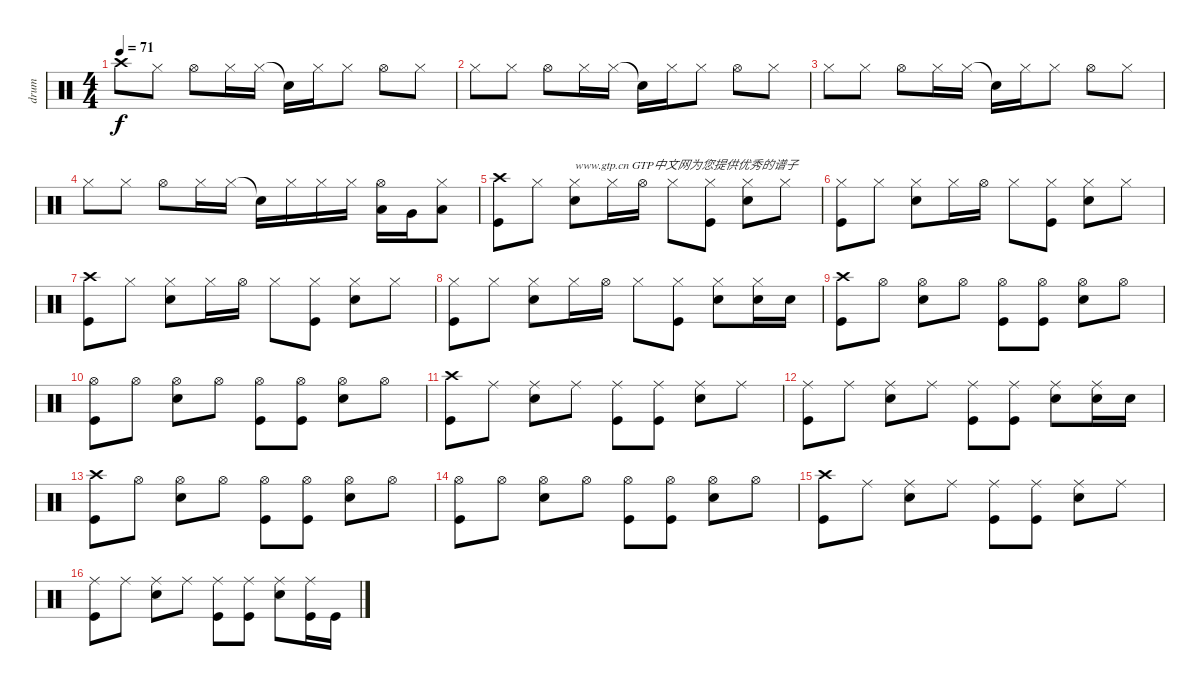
\track ("drum" "drum") {instrument percussion}
\staff {score}
\articulation defaults
\ts (4 4)
\tempo 71
\clef neutral
\ks c "Crash high (hit)".8{dy f} "Hi-Hat (closed)".8 "Hi-Hat (open)".8 "Hi-Hat (closed)".16 "Hi-Hat (closed)".16 "Snare (hit)"{t}.16 "Hi-Hat (closed)".16 "Hi-Hat (closed)".8 "Hi-Hat (open)".8 "Hi-Hat (closed)".8
|
"Hi-Hat (closed)".8 "Hi-Hat (closed)".8 "Hi-Hat (open)".8 "Hi-Hat (closed)".16 "Hi-Hat (closed)".16 "Snare (hit)"{t}.16 "Hi-Hat (closed)".16 "Hi-Hat (closed)".8 "Hi-Hat (open)".8 "Hi-Hat (closed)".8 |
"Hi-Hat (closed)".8 "Hi-Hat (closed)".8 "Hi-Hat (open)".8 "Hi-Hat (closed)".16 "Hi-Hat (closed)".16 "Snare (hit)"{t}.16 "Hi-Hat (closed)".16 "Hi-Hat (closed)".8 "Hi-Hat (open)".8 "Hi-Hat (closed)".8 |
"Hi-Hat (closed)".8 "Hi-Hat (closed)".8 "Hi-Hat (open)".8 "Hi-Hat (closed)".16 "Hi-Hat (closed)".16 "Snare (hit)"{t}.16 "Hi-Hat (closed)".16 "Hi-Hat (closed)".16 "Hi-Hat (closed)".16 ("Hi-Hat (open)" "Low Tom (hit)").16 "Very Low Tom (hit)".16 ("Hi-Hat (closed)" "Low Floor Tom (hit)").8 |
("Crash high (hit)" "Kick (hit)").8 "Hi-Hat (closed)".8 ("Hi-Hat (closed)" "Snare (hit) 2").8{txt "www.gtp.cn GTP中文网为您提供优秀的谱子"} "Hi-Hat (closed)".16 "Hi-Hat (open)".16 "Hi-Hat (closed)".8 ("Hi-Hat (closed)" "Kick (hit)").8 ("Hi-Hat (closed)" "Snare (hit) 2").8 "Hi-Hat (closed)".8 |
("Hi-Hat (closed)" "Kick (hit)").8 "Hi-Hat (closed)".8 ("Hi-Hat (closed)" "Snare (hit) 2").8 "Hi-Hat (closed)".16 "Hi-Hat (open)".16 "Hi-Hat (closed)".8 ("Hi-Hat (closed)" "Kick (hit)").8 ("Hi-Hat (closed)" "Snare (hit) 2").8 "Hi-Hat (closed)".8 |
("Crash high (hit)" "Kick (hit)").8 "Hi-Hat (closed)".8 ("Hi-Hat (closed)" "Snare (hit) 2").8 "Hi-Hat (closed)".16 "Hi-Hat (open)".16 "Hi-Hat (closed)".8 ("Hi-Hat (closed)" "Kick (hit)").8 ("Hi-Hat (closed)" "Snare (hit) 2").8 "Hi-Hat (closed)".8 |
("Hi-Hat (closed)" "Kick (hit)").8 "Hi-Hat (closed)".8 ("Hi-Hat (closed)" "Snare (hit) 2").8 "Hi-Hat (closed)".16 "Hi-Hat (open)".16 "Hi-Hat (closed)".8 ("Hi-Hat (closed)" "Kick (hit)").8 ("Hi-Hat (closed)" "Snare (hit) 2").8 ("Hi-Hat (closed)" "Snare (hit) 2").16 "Snare (hit) 2".16 |
("Crash high (hit)" "Kick (hit)").8 "Hi-Hat (open)".8 ("Hi-Hat (open)" "Snare (hit) 2").8 "Hi-Hat (open)".8 ("Hi-Hat (open)" "Kick (hit)").8 ("Hi-Hat (open)" "Kick (hit)").8 ("Hi-Hat (open)" "Snare (hit) 2").8 "Hi-Hat (open)".8 |
("Hi-Hat (open)" "Kick (hit)").8 "Hi-Hat (open)".8 ("Hi-Hat (open)" "Snare (hit) 2").8 "Hi-Hat (open)".8 ("Hi-Hat (open)" "Kick (hit)").8 ("Hi-Hat (open)" "Kick (hit)").8 ("Hi-Hat (open)" "Snare (hit) 2").8 "Hi-Hat (open)".8 |
("Crash high (hit)" "Kick (hit)").8 "Ride (middle)".8 ("Ride (middle)" "Snare (hit) 2").8 "Ride (middle)".8 ("Ride (middle)" "Kick (hit)").8 ("Ride (middle)" "Kick (hit)").8 ("Ride (middle)" "Snare (hit) 2").8 "Ride (middle)".8 |
("Ride (middle)" "Kick (hit)").8 "Ride (middle)".8 ("Ride (middle)" "Snare (hit) 2").8 "Ride (middle)".8 ("Ride (middle)" "Kick (hit)").8 ("Ride (middle)" "Kick (hit)").8 ("Ride (middle)" "Snare (hit) 2").8 ("Ride (middle)" "Snare (hit) 2").16 "Snare (hit) 2".16 |
("Crash high (hit)" "Kick (hit)").8 "Hi-Hat (open)".8 ("Hi-Hat (open)" "Snare (hit) 2").8 "Hi-Hat (open)".8 ("Hi-Hat (open)" "Kick (hit)").8 ("Hi-Hat (open)" "Kick (hit)").8 ("Hi-Hat (open)" "Snare (hit) 2").8 "Hi-Hat (open)".8 |
("Hi-Hat (open)" "Kick (hit)").8 "Hi-Hat (open)".8 ("Hi-Hat (open)" "Snare (hit) 2").8 "Hi-Hat (open)".8 ("Hi-Hat (open)" "Kick (hit)").8 ("Hi-Hat (open)" "Kick (hit)").8 ("Hi-Hat (open)" "Snare (hit) 2").8 "Hi-Hat (open)".8 |
("Crash high (hit)" "Kick (hit)").8 "Ride (middle)".8 ("Ride (middle)" "Snare (hit) 2").8 "Ride (middle)".8 ("Ride (middle)" "Kick (hit)").8 ("Ride (middle)" "Kick (hit)").8 ("Ride (middle)" "Snare (hit) 2").8 "Ride (middle)".8 |
("Ride (middle)" "Kick (hit)").8 "Ride (middle)".8 ("Ride (middle)" "Snare (hit) 2").8 "Ride (middle)".8 ("Ride (middle)" "Kick (hit)").8 ("Ride (middle)" "Kick (hit)").8 ("Ride (middle)" "Snare (hit) 2").8 ("Ride (middle)" "Kick (hit)").16 "Kick (hit)".16
